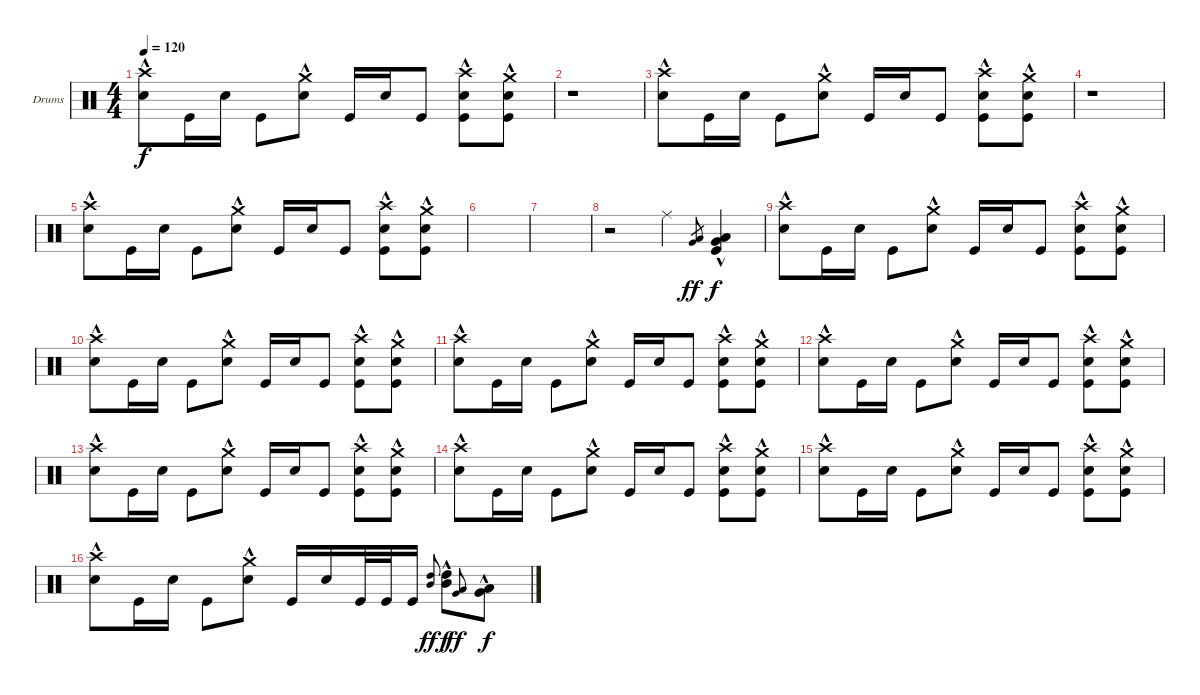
\bracketExtendMode groupsimilarinstruments
\firstSystemTrackNameOrientation horizontal
\otherSystemsTrackNameOrientation horizontal
\track ("Drumkit (Christoph)" "Drums") {instrument percussion}
\staff {score}
\articulation defaults
\ts (4 4)
\tempo 120
\clef neutral
\ks c
("Crash high (hit)" "Snare (hit) 2"{hac}).8{dy f} "Kick (hit)".16 "Snare (hit) 2".16 "Kick (hit)".8 ("Crash medium (hit)" "Snare (hit) 2"{hac}).8 "Kick (hit)".16 "Snare (hit) 2".16 "Kick (hit)".8 ("Crash high (hit)" "Kick (hit)" "Snare (hit) 2"{hac}).8 ("Crash medium (hit)" "Kick (hit)" "Snare (hit) 2"{hac}).8 |
r.1 |
("Crash high (hit)" "Snare (hit) 2"{hac}).8 "Kick (hit)".16 "Snare (hit) 2".16 "Kick (hit)".8 ("Crash medium (hit)" "Snare (hit) 2"{hac}).8 "Kick (hit)".16 "Snare (hit) 2".16 "Kick (hit)".8 ("Crash high (hit)" "Kick (hit)" "Snare (hit) 2"{hac}).8 ("Crash medium (hit)" "Kick (hit)" "Snare (hit) 2"{hac}).8 |
r.1 |
("Crash high (hit)" "Snare (hit) 2"{hac}).8 "Kick (hit)".16 "Snare (hit) 2".16 "Kick (hit)".8 ("Crash medium (hit)" "Snare (hit) 2"{hac}).8 "Kick (hit)".16 "Snare (hit) 2".16 "Kick (hit)".8 ("Crash high (hit)" "Kick (hit)" "Snare (hit) 2"{hac}).8 ("Crash medium (hit)" "Kick (hit)" "Snare (hit) 2"{hac}).8 |
|
|
r.2 "Ride (middle)".4 ("Low Tom (hit)" "Very Low Tom (hit)").8{gr dy ff} ("Kick (hit)" "Low Tom (hit)"{hac} "Very Low Tom (hit)"{hac}).4{dy f} |
("Crash high (hit)" "Snare (hit) 2"{hac}).8 "Kick (hit)".16 "Snare (hit) 2".16 "Kick (hit)".8 ("Crash medium (hit)" "Snare (hit) 2"{hac}).8 "Kick (hit)".16 "Snare (hit) 2".16 "Kick (hit)".8 ("Crash high (hit)" "Kick (hit)" "Snare (hit) 2"{hac}).8 ("Crash medium (hit)" "Kick (hit)" "Snare (hit) 2"{hac}).8 |
("Crash high (hit)" "Snare (hit) 2"{hac}).8 "Kick (hit)".16 "Snare (hit) 2".16 "Kick (hit)".8 ("Crash medium (hit)" "Snare (hit) 2"{hac}).8 "Kick (hit)".16 "Snare (hit) 2".16 "Kick (hit)".8 ("Crash high (hit)" "Kick (hit)" "Snare (hit) 2"{hac}).8 ("Crash medium (hit)" "Kick (hit)" "Snare (hit) 2"{hac}).8 |
("Crash high (hit)" "Snare (hit) 2"{hac}).8 "Kick (hit)".16 "Snare (hit) 2".16 "Kick (hit)".8 ("Crash medium (hit)" "Snare (hit) 2"{hac}).8 "Kick (hit)".16 "Snare (hit) 2".16 "Kick (hit)".8 ("Crash high (hit)" "Kick (hit)" "Snare (hit) 2"{hac}).8 ("Crash medium (hit)" "Kick (hit)" "Snare (hit) 2"{hac}).8 |
("Crash high (hit)" "Snare (hit) 2"{hac}).8 "Kick (hit)".16 "Snare (hit) 2".16 "Kick (hit)".8 ("Crash medium (hit)" "Snare (hit) 2"{hac}).8 "Kick (hit)".16 "Snare (hit) 2".16 "Kick (hit)".8 ("Crash high (hit)" "Kick (hit)" "Snare (hit) 2"{hac}).8 ("Crash medium (hit)" "Kick (hit)" "Snare (hit) 2"{hac}).8 |
("Crash high (hit)" "Snare (hit) 2"{hac}).8 "Kick (hit)".16 "Snare (hit) 2".16 "Kick (hit)".8 ("Crash medium (hit)" "Snare (hit) 2"{hac}).8 "Kick (hit)".16 "Snare (hit) 2".16 "Kick (hit)".8 ("Crash high (hit)" "Kick (hit)" "Snare (hit) 2"{hac}).8 ("Crash medium (hit)" "Kick (hit)" "Snare (hit) 2"{hac}).8 |
("Crash high (hit)" "Snare (hit) 2"{hac}).8 "Kick (hit)".16 "Snare (hit) 2".16 "Kick (hit)".8 ("Crash medium (hit)" "Snare (hit) 2"{hac}).8 "Kick (hit)".16 "Snare (hit) 2".16 "Kick (hit)".8 ("Crash high (hit)" "Kick (hit)" "Snare (hit) 2"{hac}).8 ("Crash medium (hit)" "Kick (hit)" "Snare (hit) 2"{hac}).8 |
("Crash high (hit)" "Snare (hit) 2"{hac}).8 "Kick (hit)".16 "Snare (hit) 2".16 "Kick (hit)".8 ("Crash medium (hit)" "Snare (hit) 2"{hac}).8 "Kick (hit)".16 "Snare (hit) 2".16 "Kick (hit)".8 ("Crash high (hit)" "Kick (hit)" "Snare (hit) 2"{hac}).8 ("Crash medium (hit)" "Kick (hit)" "Snare (hit) 2"{hac}).8 |
("Crash high (hit)" "Snare (hit) 2"{hac}).8 "Kick (hit)".16 "Snare (hit) 2".16 "Kick (hit)".8 ("Crash medium (hit)" "Snare (hit) 2"{hac}).8 "Kick (hit)".16 "Snare (hit) 2".16 "Kick (hit)".32 "Kick (hit)".32 "Kick (hit)".16 ("High Tom (hit)" "Mid Tom (hit)").8{gr onbeat dy ff} ("High Tom (hit)"{hac} "Mid Tom (hit)"{hac}).8{dy f} ("Low Tom (hit)" "Very Low Tom (hit)").8{gr onbeat dy ff} ("Low Tom (hit)"{hac} "Very Low Tom (hit)"{hac}).8{dy f}
